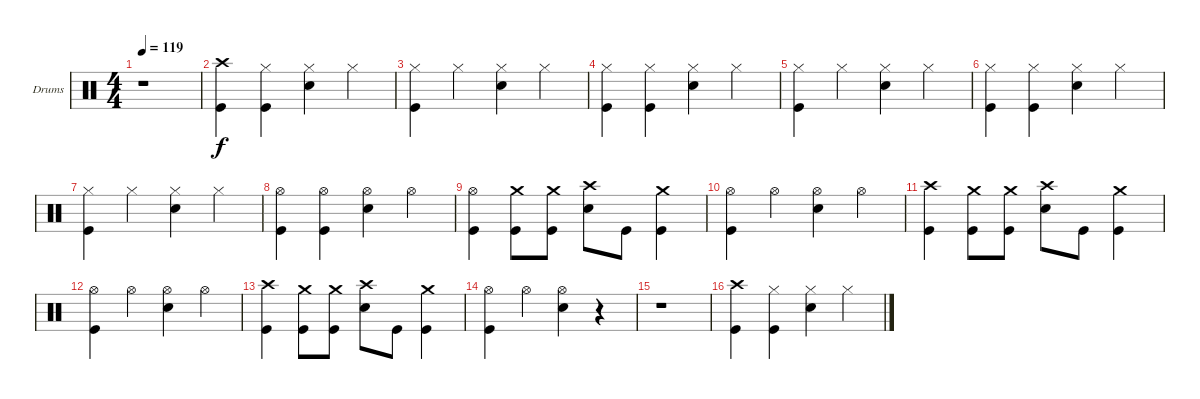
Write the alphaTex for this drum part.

\bracketExtendMode groupsimilarinstruments
\firstSystemTrackNameOrientation horizontal
\otherSystemsTrackNameOrientation horizontal
\track ("Drumkit" "Drums") {instrument percussion}
\staff {score}
\articulation defaults
\ts (4 4)
\tempo 119
\clef neutral
\ks c
r.1{dy f} |
("Crash high (hit)" "Kick (hit)").4 ("Hi-Hat (closed)" "Kick (hit)").4 ("Hi-Hat (closed)" "Snare (hit) 2").4 "Hi-Hat (closed)".4 |
("Hi-Hat (closed)" "Kick (hit)").4 "Hi-Hat (closed)".4 ("Hi-Hat (closed)" "Snare (hit) 2").4 "Hi-Hat (closed)".4 |
("Hi-Hat (closed)" "Kick (hit)").4 ("Hi-Hat (closed)" "Kick (hit)").4 ("Hi-Hat (closed)" "Snare (hit) 2").4 "Hi-Hat (closed)".4 |
("Hi-Hat (closed)" "Kick (hit)").4 "Hi-Hat (closed)".4 ("Hi-Hat (closed)" "Snare (hit) 2").4 "Hi-Hat (closed)".4 |
("Hi-Hat (closed)" "Kick (hit)").4 ("Hi-Hat (closed)" "Kick (hit)").4 ("Hi-Hat (closed)" "Snare (hit) 2").4 "Hi-Hat (closed)".4 |
("Hi-Hat (closed)" "Kick (hit)").4 "Hi-Hat (closed)".4 ("Hi-Hat (closed)" "Snare (hit) 2").4 "Hi-Hat (closed)".4 |
("Hi-Hat (open)" "Kick (hit)").4 ("Hi-Hat (open)" "Kick (hit)").4 ("Hi-Hat (open)" "Snare (hit) 2").4 "Hi-Hat (open)".4 |
("Hi-Hat (open)" "Kick (hit)").4 ("Crash medium (hit)" "Kick (hit)").8 ("Crash medium (hit)" "Kick (hit)").8 ("Crash high (hit)" "Snare (hit) 2").8 "Kick (hit)".8 ("Crash medium (hit)" "Kick (hit)").4 |
("Hi-Hat (open)" "Kick (hit)").4 "Hi-Hat (open)".4 ("Hi-Hat (open)" "Snare (hit) 2").4 "Hi-Hat (open)".4 |
("Crash high (hit)" "Kick (hit)").4 ("Crash medium (hit)" "Kick (hit)").8 ("Crash medium (hit)" "Kick (hit)").8 ("Crash high (hit)" "Snare (hit) 2").8 "Kick (hit)".8 ("Crash medium (hit)" "Kick (hit)").4 |
("Hi-Hat (open)" "Kick (hit)").4 "Hi-Hat (open)".4 ("Hi-Hat (open)" "Snare (hit) 2").4 "Hi-Hat (open)".4 |
("Crash high (hit)" "Kick (hit)").4 ("Crash medium (hit)" "Kick (hit)").8 ("Crash medium (hit)" "Kick (hit)").8 ("Crash high (hit)" "Snare (hit) 2").8 "Kick (hit)".8 ("Crash medium (hit)" "Kick (hit)").4 |
("Hi-Hat (open)" "Kick (hit)").4 "Hi-Hat (open)".4 ("Hi-Hat (open)" "Snare (hit) 2").4 r.4 |
r.1 |
("Crash high (hit)" "Kick (hit)").4 ("Hi-Hat (closed)" "Kick (hit)").4 ("Hi-Hat (closed)" "Snare (hit) 2").4 "Hi-Hat (closed)".4
